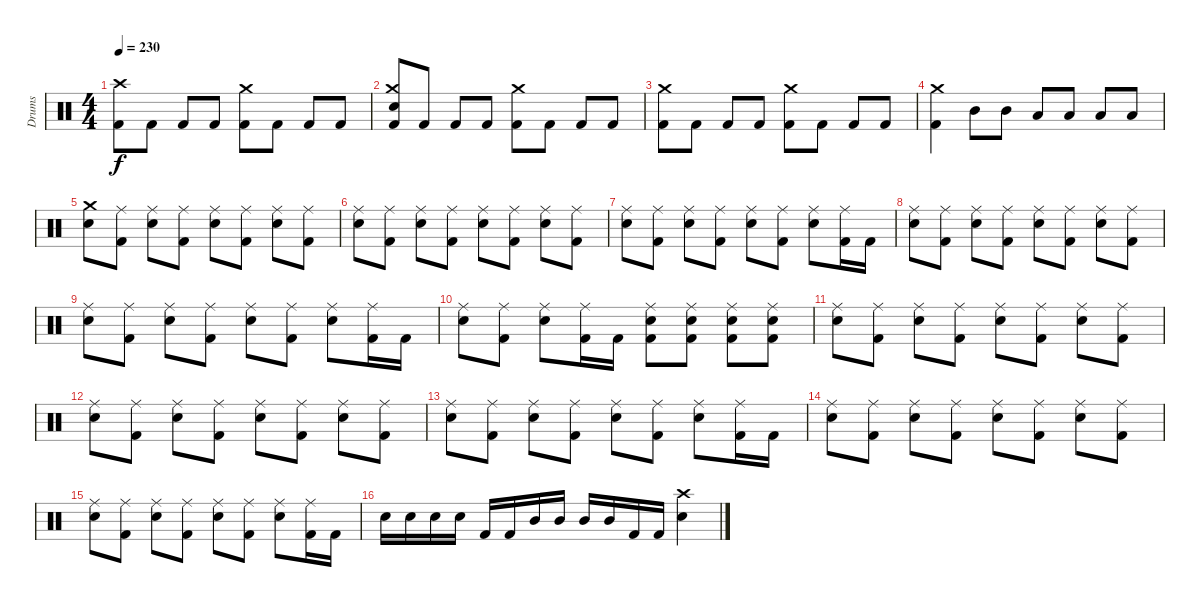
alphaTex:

\track ("Drums" "Drums") {instrument percussion}
\staff {score}
\articulation defaults
\ts (4 4)
\tempo 230
\clef neutral
\ks c
("Crash high (hit)" "Kick (hit) 2").8{dy f} "Kick (hit) 2".8 "Kick (hit) 2".8 "Kick (hit) 2".8 ("Crash medium (hit)" "Kick (hit) 2").8 "Kick (hit) 2".8 "Kick (hit) 2".8 "Kick (hit) 2".8 |
("Crash medium (hit)" "Electric Snare (hit)" "Kick (hit) 2").8 "Kick (hit) 2".8 "Kick (hit) 2".8 "Kick (hit) 2".8 ("Crash medium (hit)" "Kick (hit) 2").8 "Kick (hit) 2".8 "Kick (hit) 2".8 "Kick (hit) 2".8 |
("Crash medium (hit)" "Kick (hit) 2").8 "Kick (hit) 2".8 "Kick (hit) 2".8 "Kick (hit) 2".8 ("Crash medium (hit)" "Kick (hit) 2").8 "Kick (hit) 2".8 "Kick (hit) 2".8 "Kick (hit) 2".8 |
("Crash medium (hit)" "Kick (hit) 2").4 "Mid Tom (hit)".8 "Mid Tom (hit)".8 "Low Tom (hit)".8 "Low Tom (hit)".8 "Low Floor Tom (hit)".8 "Low Floor Tom (hit)".8 |
("Crash medium (hit)" "Electric Snare (hit)").8 ("Ride (middle)" "Kick (hit) 2").8 ("Ride (middle)" "Electric Snare (hit)").8 ("Ride (middle)" "Kick (hit) 2").8 ("Ride (middle)" "Electric Snare (hit)").8 ("Ride (middle)" "Kick (hit) 2").8 ("Ride (middle)" "Electric Snare (hit)").8 ("Ride (middle)" "Kick (hit) 2").8 |
("Ride (middle)" "Electric Snare (hit)").8 ("Ride (middle)" "Kick (hit) 2").8 ("Ride (middle)" "Electric Snare (hit)").8 ("Ride (middle)" "Kick (hit) 2").8 ("Ride (middle)" "Electric Snare (hit)").8 ("Ride (middle)" "Kick (hit) 2").8 ("Ride (middle)" "Electric Snare (hit)").8 ("Ride (middle)" "Kick (hit) 2").8 |
("Ride (middle)" "Electric Snare (hit)").8 ("Ride (middle)" "Kick (hit) 2").8 ("Ride (middle)" "Electric Snare (hit)").8 ("Ride (middle)" "Kick (hit) 2").8 ("Ride (middle)" "Electric Snare (hit)").8 ("Ride (middle)" "Kick (hit) 2").8 ("Ride (middle)" "Electric Snare (hit)").8 ("Ride (middle)" "Kick (hit) 2").16 "Kick (hit) 2".16 |
("Ride (middle)" "Electric Snare (hit)").8 ("Ride (middle)" "Kick (hit) 2").8 ("Ride (middle)" "Electric Snare (hit)").8 ("Ride (middle)" "Kick (hit) 2").8 ("Ride (middle)" "Electric Snare (hit)").8 ("Ride (middle)" "Kick (hit) 2").8 ("Ride (middle)" "Electric Snare (hit)").8 ("Ride (middle)" "Kick (hit) 2").8 |
("Ride (middle)" "Electric Snare (hit)").8 ("Ride (middle)" "Kick (hit) 2").8 ("Ride (middle)" "Electric Snare (hit)").8 ("Ride (middle)" "Kick (hit) 2").8 ("Ride (middle)" "Electric Snare (hit)").8 ("Ride (middle)" "Kick (hit) 2").8 ("Ride (middle)" "Electric Snare (hit)").8 ("Ride (middle)" "Kick (hit) 2").16 "Kick (hit) 2".16 |
("Ride (middle)" "Electric Snare (hit)").8 ("Ride (middle)" "Kick (hit) 2").8 ("Ride (middle)" "Electric Snare (hit)").8 ("Ride (middle)" "Kick (hit) 2").16 "Kick (hit) 2".16 ("Ride (middle)" "Electric Snare (hit)" "Kick (hit) 2").8 ("Ride (middle)" "Electric Snare (hit)" "Kick (hit) 2").8 ("Ride (middle)" "Electric Snare (hit)" "Kick (hit) 2").8 ("Ride (middle)" "Electric Snare (hit)" "Kick (hit) 2").8 |
("Ride (middle)" "Electric Snare (hit)").8 ("Ride (middle)" "Kick (hit) 2").8 ("Ride (middle)" "Electric Snare (hit)").8 ("Ride (middle)" "Kick (hit) 2").8 ("Ride (middle)" "Electric Snare (hit)").8 ("Ride (middle)" "Kick (hit) 2").8 ("Ride (middle)" "Electric Snare (hit)").8 ("Ride (middle)" "Kick (hit) 2").8 |
("Ride (middle)" "Electric Snare (hit)").8 ("Ride (middle)" "Kick (hit) 2").8 ("Ride (middle)" "Electric Snare (hit)").8 ("Ride (middle)" "Kick (hit) 2").8 ("Ride (middle)" "Electric Snare (hit)").8 ("Ride (middle)" "Kick (hit) 2").8 ("Ride (middle)" "Electric Snare (hit)").8 ("Ride (middle)" "Kick (hit) 2").8 |
("Ride (middle)" "Electric Snare (hit)").8 ("Ride (middle)" "Kick (hit) 2").8 ("Ride (middle)" "Electric Snare (hit)").8 ("Ride (middle)" "Kick (hit) 2").8 ("Ride (middle)" "Electric Snare (hit)").8 ("Ride (middle)" "Kick (hit) 2").8 ("Ride (middle)" "Electric Snare (hit)").8 ("Ride (middle)" "Kick (hit) 2").16 "Kick (hit) 2".16 |
("Ride (middle)" "Electric Snare (hit)").8 ("Ride (middle)" "Kick (hit) 2").8 ("Ride (middle)" "Electric Snare (hit)").8 ("Ride (middle)" "Kick (hit) 2").8 ("Ride (middle)" "Electric Snare (hit)").8 ("Ride (middle)" "Kick (hit) 2").8 ("Ride (middle)" "Electric Snare (hit)").8 ("Ride (middle)" "Kick (hit) 2").8 |
("Ride (middle)" "Electric Snare (hit)").8 ("Ride (middle)" "Kick (hit) 2").8 ("Ride (middle)" "Electric Snare (hit)").8 ("Ride (middle)" "Kick (hit) 2").8 ("Ride (middle)" "Electric Snare (hit)").8 ("Ride (middle)" "Kick (hit) 2").8 ("Ride (middle)" "Electric Snare (hit)").8 ("Ride (middle)" "Kick (hit) 2").16 "Kick (hit) 2".16 |
"Electric Snare (hit)".16 "Electric Snare (hit)".16 "Electric Snare (hit)".16 "Electric Snare (hit)".16 "Kick (hit) 2".16 "Kick (hit) 2".16 "Mid Tom (hit)".16 "Mid Tom (hit)".16 "Mid Tom (hit)".16 "Mid Tom (hit)".16 "Kick (hit) 2".16 "Kick (hit) 2".16 ("Crash high (hit)" "Electric Snare (hit)").4
